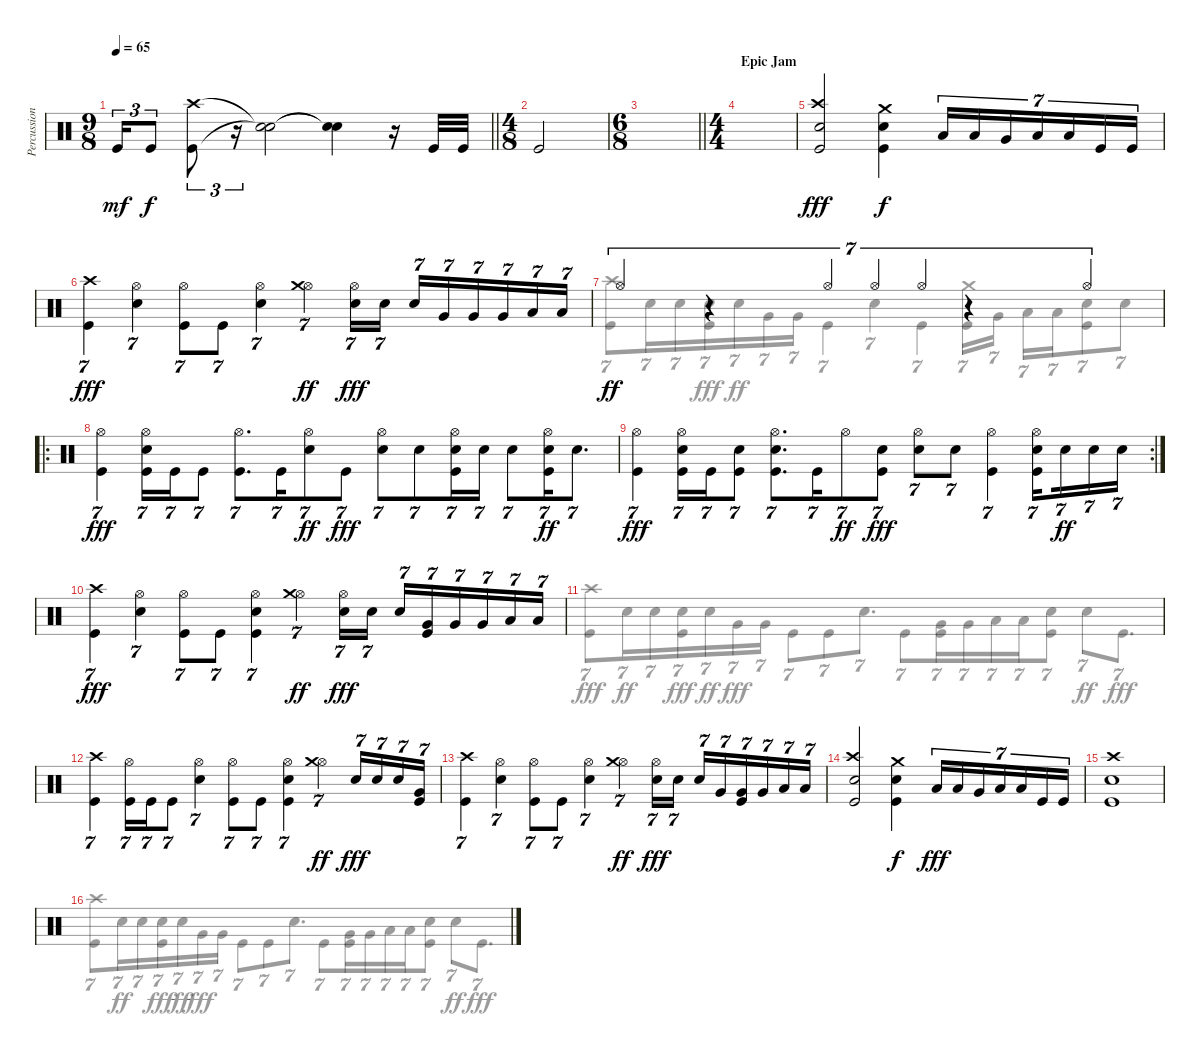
\track ("Percussion" "Percussion") {instrument percussion}
\staff {score}
\articulation defaults
\voice
\ts (9 8)
\tempo 65
\clef neutral
\barLineRight lightlight
\ks c "Kick (hit)".16{tu (3 2) dy mf} "Kick (hit)".8{tu (3 2) dy f}
("Crash high (hit)" "Kick (hit)").8{tu (3 2)} r.16{tu (3 2)} ("Snare (hit)"{t} "Snare (hit)"{t}).2 ("Snare (hit)"{t} "Snare (hit)"{t}).4 r.16 "Kick (hit)".32 "Kick (hit)".32 |
\ts (4 8)
"Kick (hit)".2 |
\ts (6 8)
\barLineRight lightlight
|
\ts (4 4)
\section ("" "Epic Jam")
|
("Crash high (hit)" "Snare (hit) 2" "Kick (hit)").2{dy fff balance 8} ("Crash medium (hit)" "Snare (hit) 2" "Kick (hit)").4{dy f} "Low Tom (hit)".16{tu (7 4)} "Low Tom (hit)".16{tu (7 4)} "Very Low Tom (hit)".16{tu (7 4)} "Low Floor Tom (hit)".16{tu (7 4)} "Low Floor Tom (hit)".16{tu (7 4)} "Kick (hit)".16{tu (7 4)} "Kick (hit)".16{tu (7 4)} |
("Crash high (hit)" "Kick (hit)").4{tu (7 4) dy fff} ("Hi-Hat (open)" "Snare (hit) 2").4{tu (7 4)} ("Hi-Hat (open)" "Kick (hit)").8{tu (7 4)} "Kick (hit)".8{tu (7 4)} ("Hi-Hat (open)" "Snare (hit) 2").4{tu (7 4)} ("Hi-Hat (open)" "Crash medium (hit)").4{tu (7 4) dy ff} ("Hi-Hat (open)" "Snare (hit) 2").16{tu (7 4) dy fff} "Snare (hit) 2".16{tu (7 4)} "Snare (hit) 2".16{tu (7 4)} "Very Low Tom (hit)".16{tu (7 4)} "Very Low Tom (hit)".16{tu (7 4)} "Very Low Tom (hit)".16{tu (7 4)} "Low Floor Tom (hit)".16{tu (7 4)} "Low Floor Tom (hit)".16{tu (7 4)} |
"Hi-Hat (open)".4{tu (7 4) dy ff} r.4{tu (7 4)} "Hi-Hat (open)".4{tu (7 4)} "Hi-Hat (open)".4{tu (7 4)} "Hi-Hat (open)".4{tu (7 4)} r.4{tu (7 4)} "Hi-Hat (open)".4{tu (7 4)} |
\ro
("Hi-Hat (open)" "Kick (hit)").4{tu (7 4) dy fff} ("Hi-Hat (open)" "Snare (hit) 2" "Kick (hit)").16{tu (7 4)} "Kick (hit)".16{tu (7 4)} "Kick (hit)".8{tu (7 4)} ("Hi-Hat (open)" "Kick (hit)").8{d tu (7 4)} "Kick (hit)".16{tu (7 4)} ("Hi-Hat (open)" "Snare (hit) 2").8{tu (7 4) dy ff} "Kick (hit)".8{tu (7 4) dy fff} ("Hi-Hat (open)" "Snare (hit) 2").8{tu (7 4)} "Snare (hit) 2".8{tu (7 4)} ("Hi-Hat (open)" "Snare (hit) 2" "Kick (hit)").16{tu (7 4)} "Snare (hit) 2".16{tu (7 4)} "Snare (hit) 2".8{tu (7 4)} ("Hi-Hat (open)" "Snare (hit) 2" "Kick (hit)").16{tu (7 4) dy ff} "Snare (hit) 2".8{d tu (7 4)} |
\rc 2
("Hi-Hat (open)" "Kick (hit)").4{tu (7 4) dy fff} ("Hi-Hat (open)" "Snare (hit) 2" "Kick (hit)").16{tu (7 4)} "Kick (hit)".16{tu (7 4)} ("Snare (hit) 2" "Kick (hit)").8{tu (7 4)} ("Hi-Hat (open)" "Snare (hit) 2" "Kick (hit)").8{d tu (7 4)} "Kick (hit)".16{tu (7 4)} "Hi-Hat (open)".8{tu (7 4) dy ff} ("Snare (hit) 2" "Kick (hit)").8{tu (7 4) dy fff} ("Hi-Hat (open)" "Snare (hit) 2").8{tu (7 4)} "Snare (hit) 2".8{tu (7 4)} ("Hi-Hat (open)" "Kick (hit)").4{tu (7 4)} ("Hi-Hat (open)" "Snare (hit) 2" "Kick (hit)").16{tu (7 4) beam splitsecondary} "Snare (hit) 2".16{tu (7 4) dy ff} "Snare (hit) 2".16{tu (7 4)} "Snare (hit) 2".16{tu (7 4)} |
("Crash high (hit)" "Kick (hit)").4{tu (7 4) dy fff} ("Hi-Hat (open)" "Snare (hit) 2").4{tu (7 4)} ("Hi-Hat (open)" "Kick (hit)").8{tu (7 4)} "Kick (hit)".8{tu (7 4)} ("Hi-Hat (open)" "Snare (hit) 2" "Kick (hit)").4{tu (7 4)} ("Hi-Hat (open)" "Crash medium (hit)").4{tu (7 4) dy ff} ("Hi-Hat (open)" "Snare (hit) 2").16{tu (7 4) dy fff} "Snare (hit) 2".16{tu (7 4)} "Snare (hit) 2".16{tu (7 4)} ("Very Low Tom (hit)" "Kick (hit)").16{tu (7 4)} "Very Low Tom (hit)".16{tu (7 4)} "Very Low Tom (hit)".16{tu (7 4)} "Low Floor Tom (hit)".16{tu (7 4)} "Low Floor Tom (hit)".16{tu (7 4)} |
|
("Crash high (hit)" "Kick (hit)").4{tu (7 4)} ("Hi-Hat (open)" "Kick (hit)").16{tu (7 4)} "Kick (hit)".16{tu (7 4)} "Kick (hit)".8{tu (7 4)} ("Hi-Hat (open)" "Snare (hit) 2").4{tu (7 4)} ("Hi-Hat (open)" "Kick (hit)").8{tu (7 4)} "Kick (hit)".8{tu (7 4)} ("Hi-Hat (open)" "Snare (hit) 2" "Kick (hit)").4{tu (7 4)} ("Hi-Hat (open)" "Crash medium (hit)").4{tu (7 4) dy ff} "Snare (hit) 2".16{tu (7 4) dy fff} "Snare (hit) 2".16{tu (7 4)} "Snare (hit) 2".16{tu (7 4)} ("Very Low Tom (hit)" "Kick (hit)").16{tu (7 4)} |
("Crash high (hit)" "Kick (hit)").4{tu (7 4)} ("Hi-Hat (open)" "Snare (hit) 2").4{tu (7 4)} ("Hi-Hat (open)" "Kick (hit)").8{tu (7 4)} "Kick (hit)".8{tu (7 4)} ("Hi-Hat (open)" "Snare (hit) 2").4{tu (7 4)} ("Hi-Hat (open)" "Crash medium (hit)").4{tu (7 4) dy ff} ("Hi-Hat (open)" "Snare (hit) 2").16{tu (7 4) dy fff} "Snare (hit) 2".16{tu (7 4)} "Snare (hit) 2".16{tu (7 4)} "Very Low Tom (hit)".16{tu (7 4)} ("Very Low Tom (hit)" "Kick (hit)").16{tu (7 4)} "Very Low Tom (hit)".16{tu (7 4)} "Low Floor Tom (hit)".16{tu (7 4)} "Low Floor Tom (hit)".16{tu (7 4)} |
("Crash high (hit)" "Snare (hit) 2" "Kick (hit)").2 ("Crash medium (hit)" "Snare (hit) 2" "Kick (hit)").4{dy f} "Low Tom (hit)".16{tu (7 4) dy fff} "Low Tom (hit)".16{tu (7 4)} "Very Low Tom (hit)".16{tu (7 4)} "Low Floor Tom (hit)".16{tu (7 4)} "Low Floor Tom (hit)".16{tu (7 4)} "Kick (hit)".16{tu (7 4)} "Kick (hit)".16{tu (7 4)} |
("Crash high (hit)" "Snare (hit) 2" "Kick (hit)").1 |
\voice
\clef neutral
\ottava regular
\simile none
\barLineRight lightlight
\ks c
|
|
\barLineRight lightlight
|
|
|
|
("Crash high (hit)" "Kick (hit)").8{tu (7 4) dy ff} "Snare (hit) 2".16{tu (7 4)} "Snare (hit) 2".16{tu (7 4)} ("Snare (hit) 2" "Kick (hit)").16{tu (7 4) dy fff} "Snare (hit) 2".16{tu (7 4) dy ff} "Very Low Tom (hit)".16{tu (7 4)} "Very Low Tom (hit)".16{tu (7 4)} "Kick (hit)".4{tu (7 4)} "Snare (hit) 2".4{tu (7 4)} "Kick (hit)".4{tu (7 4)} ("Crash medium (hit)" "Kick (hit)").16{tu (7 4)} "Very Low Tom (hit)".16{tu (7 4)} "Low Floor Tom (hit)".16{tu (7 4)} "Low Floor Tom (hit)".16{tu (7 4)} ("Snare (hit) 2" "Kick (hit)").8{tu (7 4)} "Snare (hit) 2".8{tu (7 4)} |
|
|
|
("Crash high (hit)" "Kick (hit)").8{tu (7 4) dy fff} "Snare (hit) 2".16{tu (7 4) dy ff} "Snare (hit) 2".16{tu (7 4)} ("Snare (hit) 2" "Kick (hit)").16{tu (7 4) dy fff} "Snare (hit) 2".16{tu (7 4) dy ff} "Very Low Tom (hit)".16{tu (7 4) dy fff} "Very Low Tom (hit)".16{tu (7 4)} "Kick (hit)".8{tu (7 4)} "Kick (hit)".8{tu (7 4)} "Snare (hit) 2".8{d tu (7 4)} "Kick (hit)".8{tu (7 4)} ("Very Low Tom (hit)" "Kick (hit)").16{tu (7 4)} "Very Low Tom (hit)".16{tu (7 4)} "Low Floor Tom (hit)".16{tu (7 4)} "Low Floor Tom (hit)".16{tu (7 4)} ("Snare (hit) 2" "Kick (hit)").8{tu (7 4)} "Snare (hit) 2".8{tu (7 4) dy ff} "Kick (hit)".8{d tu (7 4) dy fff} |
|
|
|
|
("Crash high (hit)" "Kick (hit)").8{tu (7 4)} "Snare (hit) 2".16{tu (7 4) dy ff} "Snare (hit) 2".16{tu (7 4)} ("Snare (hit) 2" "Kick (hit)").16{tu (7 4) dy fff} "Snare (hit) 2".16{tu (7 4) dy ff} "Very Low Tom (hit)".16{tu (7 4) dy fff} "Very Low Tom (hit)".16{tu (7 4)} "Kick (hit)".8{tu (7 4)} "Kick (hit)".8{tu (7 4)} "Snare (hit) 2".8{d tu (7 4)} "Kick (hit)".8{tu (7 4)} ("Very Low Tom (hit)" "Kick (hit)").16{tu (7 4)} "Very Low Tom (hit)".16{tu (7 4)} "Low Floor Tom (hit)".16{tu (7 4)} "Low Floor Tom (hit)".16{tu (7 4)} ("Snare (hit) 2" "Kick (hit)").8{tu (7 4)} "Snare (hit) 2".8{tu (7 4) dy ff} "Kick (hit)".8{d tu (7 4) dy fff}
